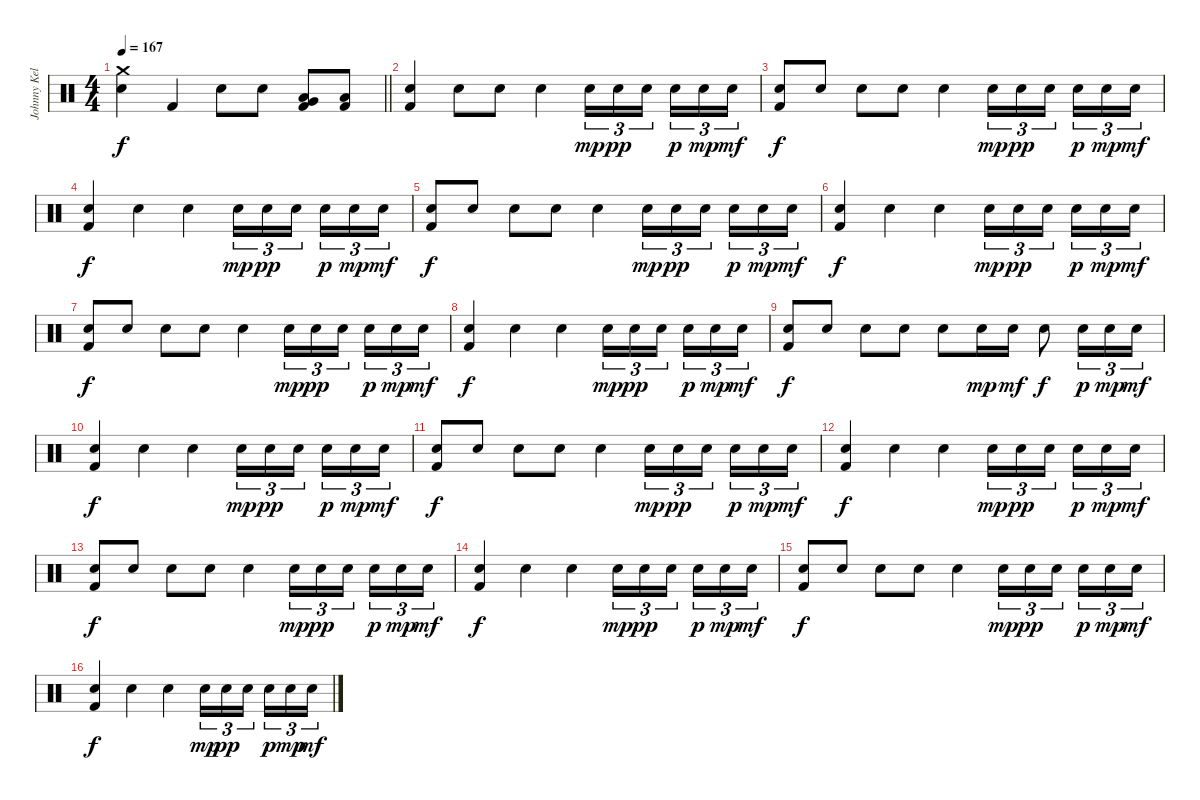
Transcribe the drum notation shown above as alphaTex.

\track ("Johnny Kelly" "Johnny Kel") {instrument percussion}
\staff {score}
\articulation defaults
\ts (4 4)
\tempo 167
\clef neutral
\barLineRight lightlight
\ks c
("Crash medium (hit)" "Electric Snare (hit)").4{dy f} "Kick (hit) 2".4 "Electric Snare (hit)".8 "Electric Snare (hit)".8 ("Very Low Tom (hit)" "Low Floor Tom (hit)" "Kick (hit) 2").8 ("Low Floor Tom (hit)" "Kick (hit) 2").8 |
\section ("" "")
("Electric Snare (hit)" "Kick (hit) 2").4{volume 12} "Electric Snare (hit)".8 "Electric Snare (hit)".8 "Electric Snare (hit)".4 "Electric Snare (hit)".16{tu (3 2) dy mp} "Electric Snare (hit)".16{tu (3 2) dy pp} "Electric Snare (hit)".16{tu (3 2) beam splitsecondary} "Electric Snare (hit)".16{tu (3 2) dy p} "Electric Snare (hit)".16{tu (3 2) dy mp} "Electric Snare (hit)".16{tu (3 2) dy mf} |
("Electric Snare (hit)" "Kick (hit) 2").8{dy f} "Electric Snare (hit)".8 "Electric Snare (hit)".8 "Electric Snare (hit)".8 "Electric Snare (hit)".4 "Electric Snare (hit)".16{tu (3 2) dy mp} "Electric Snare (hit)".16{tu (3 2) dy pp} "Electric Snare (hit)".16{tu (3 2) beam splitsecondary} "Electric Snare (hit)".16{tu (3 2) dy p} "Electric Snare (hit)".16{tu (3 2) dy mp} "Electric Snare (hit)".16{tu (3 2) dy mf} |
("Electric Snare (hit)" "Kick (hit) 2").4{dy f} "Electric Snare (hit)".4 "Electric Snare (hit)".4 "Electric Snare (hit)".16{tu (3 2) dy mp} "Electric Snare (hit)".16{tu (3 2) dy pp} "Electric Snare (hit)".16{tu (3 2) beam splitsecondary} "Electric Snare (hit)".16{tu (3 2) dy p} "Electric Snare (hit)".16{tu (3 2) dy mp} "Electric Snare (hit)".16{tu (3 2) dy mf} |
("Electric Snare (hit)" "Kick (hit) 2").8{dy f} "Electric Snare (hit)".8 "Electric Snare (hit)".8 "Electric Snare (hit)".8 "Electric Snare (hit)".4 "Electric Snare (hit)".16{tu (3 2) dy mp} "Electric Snare (hit)".16{tu (3 2) dy pp} "Electric Snare (hit)".16{tu (3 2) beam splitsecondary} "Electric Snare (hit)".16{tu (3 2) dy p} "Electric Snare (hit)".16{tu (3 2) dy mp} "Electric Snare (hit)".16{tu (3 2) dy mf} |
("Electric Snare (hit)" "Kick (hit) 2").4{dy f} "Electric Snare (hit)".4 "Electric Snare (hit)".4 "Electric Snare (hit)".16{tu (3 2) dy mp} "Electric Snare (hit)".16{tu (3 2) dy pp} "Electric Snare (hit)".16{tu (3 2) beam splitsecondary} "Electric Snare (hit)".16{tu (3 2) dy p} "Electric Snare (hit)".16{tu (3 2) dy mp} "Electric Snare (hit)".16{tu (3 2) dy mf} |
("Electric Snare (hit)" "Kick (hit) 2").8{dy f} "Electric Snare (hit)".8 "Electric Snare (hit)".8 "Electric Snare (hit)".8 "Electric Snare (hit)".4 "Electric Snare (hit)".16{tu (3 2) dy mp} "Electric Snare (hit)".16{tu (3 2) dy pp} "Electric Snare (hit)".16{tu (3 2) beam splitsecondary} "Electric Snare (hit)".16{tu (3 2) dy p} "Electric Snare (hit)".16{tu (3 2) dy mp} "Electric Snare (hit)".16{tu (3 2) dy mf} |
("Electric Snare (hit)" "Kick (hit) 2").4{dy f} "Electric Snare (hit)".4 "Electric Snare (hit)".4 "Electric Snare (hit)".16{tu (3 2) dy mp} "Electric Snare (hit)".16{tu (3 2) dy pp} "Electric Snare (hit)".16{tu (3 2) beam splitsecondary} "Electric Snare (hit)".16{tu (3 2) dy p} "Electric Snare (hit)".16{tu (3 2) dy mp} "Electric Snare (hit)".16{tu (3 2) dy mf} |
("Electric Snare (hit)" "Kick (hit) 2").8{dy f} "Electric Snare (hit)".8 "Electric Snare (hit)".8 "Electric Snare (hit)".8 "Electric Snare (hit)".8 "Electric Snare (hit)".16{dy mp} "Electric Snare (hit)".16{dy mf} "Electric Snare (hit)".8{dy f} "Electric Snare (hit)".16{tu (3 2) dy p} "Electric Snare (hit)".16{tu (3 2) dy mp} "Electric Snare (hit)".16{tu (3 2) dy mf} |
("Electric Snare (hit)" "Kick (hit) 2").4{dy f} "Electric Snare (hit)".4 "Electric Snare (hit)".4 "Electric Snare (hit)".16{tu (3 2) dy mp} "Electric Snare (hit)".16{tu (3 2) dy pp} "Electric Snare (hit)".16{tu (3 2) beam splitsecondary} "Electric Snare (hit)".16{tu (3 2) dy p} "Electric Snare (hit)".16{tu (3 2) dy mp} "Electric Snare (hit)".16{tu (3 2) dy mf} |
("Electric Snare (hit)" "Kick (hit) 2").8{dy f} "Electric Snare (hit)".8 "Electric Snare (hit)".8 "Electric Snare (hit)".8 "Electric Snare (hit)".4 "Electric Snare (hit)".16{tu (3 2) dy mp} "Electric Snare (hit)".16{tu (3 2) dy pp} "Electric Snare (hit)".16{tu (3 2) beam splitsecondary} "Electric Snare (hit)".16{tu (3 2) dy p} "Electric Snare (hit)".16{tu (3 2) dy mp} "Electric Snare (hit)".16{tu (3 2) dy mf} |
("Electric Snare (hit)" "Kick (hit) 2").4{dy f} "Electric Snare (hit)".4 "Electric Snare (hit)".4 "Electric Snare (hit)".16{tu (3 2) dy mp} "Electric Snare (hit)".16{tu (3 2) dy pp} "Electric Snare (hit)".16{tu (3 2) beam splitsecondary} "Electric Snare (hit)".16{tu (3 2) dy p} "Electric Snare (hit)".16{tu (3 2) dy mp} "Electric Snare (hit)".16{tu (3 2) dy mf} |
("Electric Snare (hit)" "Kick (hit) 2").8{dy f} "Electric Snare (hit)".8 "Electric Snare (hit)".8 "Electric Snare (hit)".8 "Electric Snare (hit)".4 "Electric Snare (hit)".16{tu (3 2) dy mp} "Electric Snare (hit)".16{tu (3 2) dy pp} "Electric Snare (hit)".16{tu (3 2) beam splitsecondary} "Electric Snare (hit)".16{tu (3 2) dy p} "Electric Snare (hit)".16{tu (3 2) dy mp} "Electric Snare (hit)".16{tu (3 2) dy mf} |
("Electric Snare (hit)" "Kick (hit) 2").4{dy f} "Electric Snare (hit)".4 "Electric Snare (hit)".4 "Electric Snare (hit)".16{tu (3 2) dy mp} "Electric Snare (hit)".16{tu (3 2) dy pp} "Electric Snare (hit)".16{tu (3 2) beam splitsecondary} "Electric Snare (hit)".16{tu (3 2) dy p} "Electric Snare (hit)".16{tu (3 2) dy mp} "Electric Snare (hit)".16{tu (3 2) dy mf} |
("Electric Snare (hit)" "Kick (hit) 2").8{dy f} "Electric Snare (hit)".8 "Electric Snare (hit)".8 "Electric Snare (hit)".8 "Electric Snare (hit)".4 "Electric Snare (hit)".16{tu (3 2) dy mp} "Electric Snare (hit)".16{tu (3 2) dy pp} "Electric Snare (hit)".16{tu (3 2) beam splitsecondary} "Electric Snare (hit)".16{tu (3 2) dy p} "Electric Snare (hit)".16{tu (3 2) dy mp} "Electric Snare (hit)".16{tu (3 2) dy mf} |
("Electric Snare (hit)" "Kick (hit) 2").4{dy f} "Electric Snare (hit)".4 "Electric Snare (hit)".4 "Electric Snare (hit)".16{tu (3 2) dy mp} "Electric Snare (hit)".16{tu (3 2) dy pp} "Electric Snare (hit)".16{tu (3 2) beam splitsecondary} "Electric Snare (hit)".16{tu (3 2) dy p} "Electric Snare (hit)".16{tu (3 2) dy mp} "Electric Snare (hit)".16{tu (3 2) dy mf}
